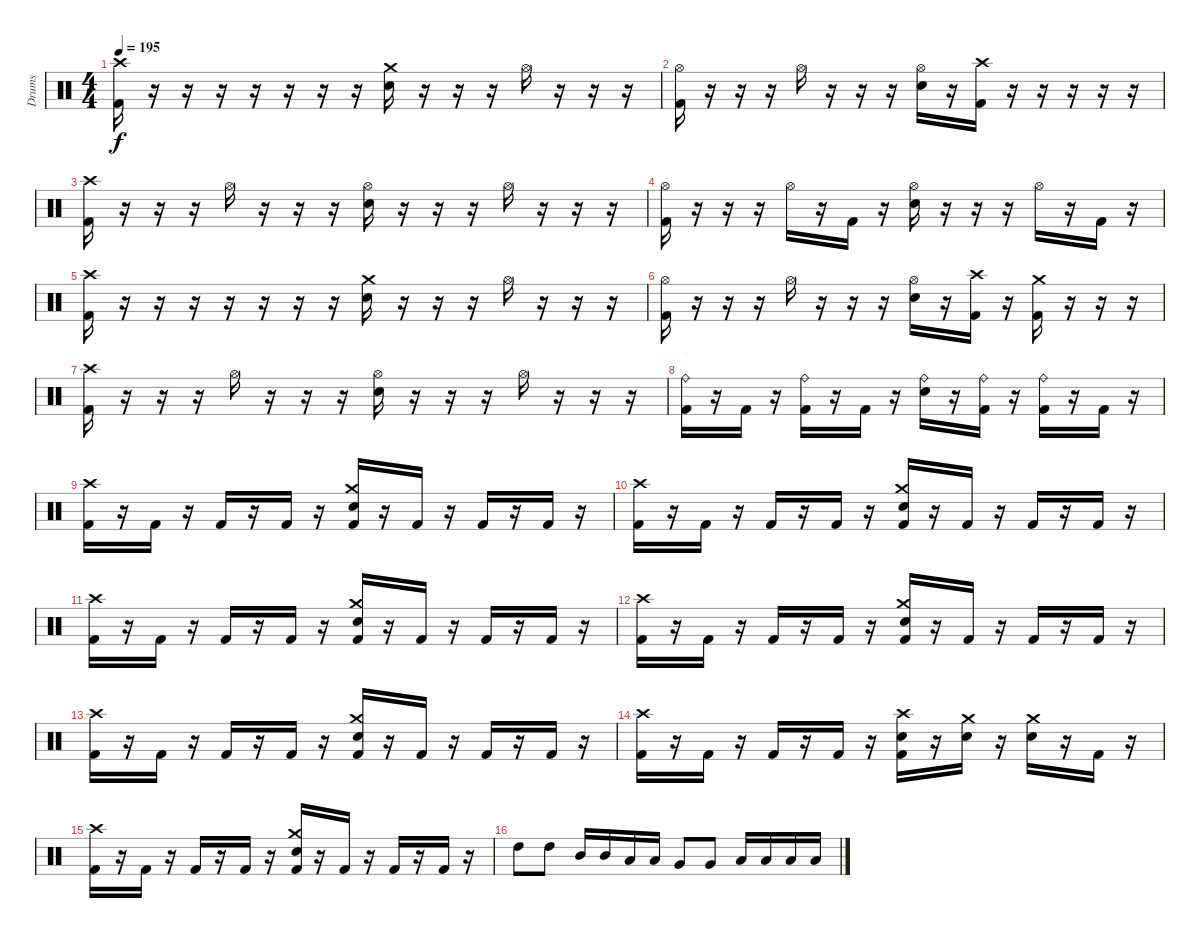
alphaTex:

\track ("Drums" "Drums") {instrument percussion}
\staff {score}
\articulation defaults
\ts (4 4)
\tempo 195
\clef neutral
\ks c
("Crash high (hit)" "Kick (hit) 2").16{dy f} r.16 r.16 r.16 r.16 r.16 r.16 r.16 ("Crash medium (hit)" "Electric Snare (hit)").16 r.16 r.16 r.16 "Hi-Hat (open)".16 r.16 r.16 r.16 |
("Hi-Hat (open)" "Kick (hit) 2").16 r.16 r.16 r.16 "Hi-Hat (open)".16 r.16 r.16 r.16 ("Hi-Hat (open)" "Electric Snare (hit)").16 r.16 ("Crash high (hit)" "Kick (hit) 2").16 r.16 r.16 r.16 r.16 r.16 |
("Crash high (hit)" "Kick (hit) 2").16 r.16 r.16 r.16 "Hi-Hat (open)".16 r.16 r.16 r.16 ("Hi-Hat (open)" "Electric Snare (hit)").16 r.16 r.16 r.16 "Hi-Hat (open)".16 r.16 r.16 r.16 |
("Hi-Hat (open)" "Kick (hit) 2").16 r.16 r.16 r.16 "Hi-Hat (open)".16 r.16 "Kick (hit) 2".16 r.16 ("Hi-Hat (open)" "Electric Snare (hit)").16 r.16 r.16 r.16 "Hi-Hat (open)".16 r.16 "Kick (hit) 2".16 r.16 |
("Crash high (hit)" "Kick (hit) 2").16 r.16 r.16 r.16 r.16 r.16 r.16 r.16 ("Crash medium (hit)" "Electric Snare (hit)").16 r.16 r.16 r.16 "Hi-Hat (open)".16 r.16 r.16 r.16 |
("Hi-Hat (open)" "Kick (hit) 2").16 r.16 r.16 r.16 "Hi-Hat (open)".16 r.16 r.16 r.16 ("Hi-Hat (open)" "Electric Snare (hit)").16 r.16 ("Crash high (hit)" "Kick (hit) 2").16 r.16 ("Crash medium (hit)" "Kick (hit) 2").16 r.16 r.16 r.16 |
("Crash high (hit)" "Kick (hit) 2").16 r.16 r.16 r.16 "Hi-Hat (open)".16 r.16 r.16 r.16 ("Hi-Hat (open)" "Electric Snare (hit)").16 r.16 r.16 r.16 "Hi-Hat (open)".16 r.16 r.16 r.16 |
("Ride (bell)" "Kick (hit) 2").16 r.16 "Kick (hit) 2".16 r.16 ("Ride (bell)" "Kick (hit) 2").16 r.16 "Kick (hit) 2".16 r.16 ("Ride (bell)" "Electric Snare (hit)").16 r.16 ("Ride (bell)" "Kick (hit) 2").16 r.16 ("Ride (bell)" "Kick (hit) 2").16 r.16 "Kick (hit) 2".16 r.16 |
("Crash high (hit)" "Kick (hit) 2").16 r.16 "Kick (hit) 2".16 r.16 "Kick (hit) 2".16 r.16 "Kick (hit) 2".16 r.16 ("Crash medium (hit)" "Electric Snare (hit)" "Kick (hit) 2").16 r.16 "Kick (hit) 2".16 r.16 "Kick (hit) 2".16 r.16 "Kick (hit) 2".16 r.16 |
("Crash high (hit)" "Kick (hit) 2").16 r.16 "Kick (hit) 2".16 r.16 "Kick (hit) 2".16 r.16 "Kick (hit) 2".16 r.16 ("Crash medium (hit)" "Electric Snare (hit)" "Kick (hit) 2").16 r.16 "Kick (hit) 2".16 r.16 "Kick (hit) 2".16 r.16 "Kick (hit) 2".16 r.16 |
("Crash high (hit)" "Kick (hit) 2").16 r.16 "Kick (hit) 2".16 r.16 "Kick (hit) 2".16 r.16 "Kick (hit) 2".16 r.16 ("Crash medium (hit)" "Electric Snare (hit)" "Kick (hit) 2").16 r.16 "Kick (hit) 2".16 r.16 "Kick (hit) 2".16 r.16 "Kick (hit) 2".16 r.16 |
("Crash high (hit)" "Kick (hit) 2").16 r.16 "Kick (hit) 2".16 r.16 "Kick (hit) 2".16 r.16 "Kick (hit) 2".16 r.16 ("Crash medium (hit)" "Electric Snare (hit)" "Kick (hit) 2").16 r.16 "Kick (hit) 2".16 r.16 "Kick (hit) 2".16 r.16 "Kick (hit) 2".16 r.16 |
("Crash high (hit)" "Kick (hit) 2").16 r.16 "Kick (hit) 2".16 r.16 "Kick (hit) 2".16 r.16 "Kick (hit) 2".16 r.16 ("Crash medium (hit)" "Electric Snare (hit)" "Kick (hit) 2").16 r.16 "Kick (hit) 2".16 r.16 "Kick (hit) 2".16 r.16 "Kick (hit) 2".16 r.16 |
("Crash high (hit)" "Kick (hit) 2").16 r.16 "Kick (hit) 2".16 r.16 "Kick (hit) 2".16 r.16 "Kick (hit) 2".16 r.16 ("Crash high (hit)" "Electric Snare (hit)" "Kick (hit) 2").16 r.16 ("Crash medium (hit)" "Electric Snare (hit)").16 r.16 ("Crash medium (hit)" "Electric Snare (hit)").16 r.16 "Kick (hit) 2".16 r.16 |
("Crash high (hit)" "Kick (hit) 2").16 r.16 "Kick (hit) 2".16 r.16 "Kick (hit) 2".16 r.16 "Kick (hit) 2".16 r.16 ("Crash medium (hit)" "Electric Snare (hit)" "Kick (hit) 2").16 r.16 "Kick (hit) 2".16 r.16 "Kick (hit) 2".16 r.16 "Kick (hit) 2".16 r.16 |
"High Tom (hit)".8 "High Tom (hit)".8 "Mid Tom (hit)".16 "Mid Tom (hit)".16 "Low Tom (hit)".16 "Low Tom (hit)".16 "Very Low Tom (hit)".8 "Very Low Tom (hit)".8 "Low Floor Tom (hit)".16 "Low Floor Tom (hit)".16 "Low Floor Tom (hit)".16 "Low Floor Tom (hit)".16
